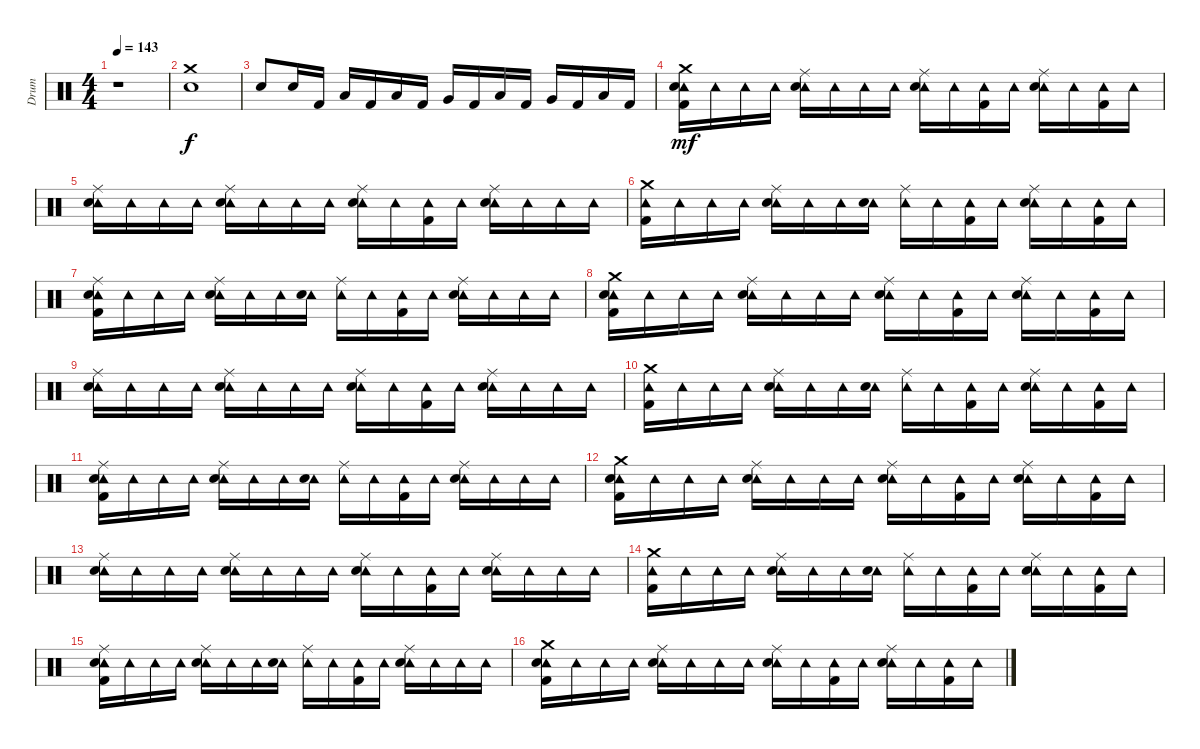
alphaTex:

\track ("Drum" "Drum") {instrument percussion}
\staff {score}
\articulation defaults
\ts (4 4)
\tempo 143
\clef neutral
\ks c
r.1{dy f} |
("Crash medium (hit)" "Snare (hit) 2").1 |
"Snare (hit) 2".8 "Snare (hit) 2".16 "Kick (hit) 2".16 "Low Floor Tom (hit)".16 "Kick (hit) 2".16 "Low Floor Tom (hit)".16 "Kick (hit) 2".16 "Very Low Tom (hit)".16 "Kick (hit) 2".16 "Low Floor Tom (hit)".16 "Kick (hit) 2".16 "Very Low Tom (hit)".16 "Kick (hit) 2".16 "Low Floor Tom (hit)".16 "Kick (hit) 2".16 |
("Tambourine (hit)" "Crash medium (hit)" "Snare (hit) 2" "Kick (hit) 2").16{dy mf} "Tambourine (hit)".16 "Tambourine (hit)".16 "Tambourine (hit)".16 ("Tambourine (hit)" "Ride (middle)" "Snare (hit) 2").16 "Tambourine (hit)".16 "Tambourine (hit)".16 "Tambourine (hit)".16 ("Tambourine (hit)" "Ride (middle)" "Snare (hit) 2").16 "Tambourine (hit)".16 ("Tambourine (hit)" "Kick (hit) 2").16 "Tambourine (hit)".16 ("Tambourine (hit)" "Ride (middle)" "Snare (hit) 2").16 "Tambourine (hit)".16 ("Tambourine (hit)" "Kick (hit) 2").16 "Tambourine (hit)".16 |
("Tambourine (hit)" "Ride (middle)" "Snare (hit) 2").16 "Tambourine (hit)".16 "Tambourine (hit)".16 "Tambourine (hit)".16 ("Tambourine (hit)" "Ride (middle)" "Snare (hit) 2").16 "Tambourine (hit)".16 "Tambourine (hit)".16 "Tambourine (hit)".16 ("Tambourine (hit)" "Ride (middle)" "Snare (hit) 2").16 "Tambourine (hit)".16 ("Tambourine (hit)" "Kick (hit) 2").16 "Tambourine (hit)".16 ("Tambourine (hit)" "Ride (middle)" "Snare (hit) 2").16 "Tambourine (hit)".16 "Tambourine (hit)".16 "Tambourine (hit)".16 |
("Tambourine (hit)" "Crash medium (hit)" "Kick (hit) 2").16 "Tambourine (hit)".16 "Tambourine (hit)".16 "Tambourine (hit)".16 ("Tambourine (hit)" "Ride (middle)" "Snare (hit) 2").16 "Tambourine (hit)".16 "Tambourine (hit)".16 ("Tambourine (hit)" "Snare (hit) 2").16 ("Tambourine (hit)" "Ride (middle)").16 "Tambourine (hit)".16 ("Tambourine (hit)" "Kick (hit) 2").16 "Tambourine (hit)".16 ("Tambourine (hit)" "Ride (middle)" "Snare (hit) 2").16 "Tambourine (hit)".16 ("Tambourine (hit)" "Kick (hit) 2").16 "Tambourine (hit)".16 |
("Tambourine (hit)" "Ride (middle)" "Snare (hit) 2" "Kick (hit) 2").16 "Tambourine (hit)".16 "Tambourine (hit)".16 "Tambourine (hit)".16 ("Tambourine (hit)" "Ride (middle)" "Snare (hit) 2").16 "Tambourine (hit)".16 "Tambourine (hit)".16 ("Tambourine (hit)" "Snare (hit) 2").16 ("Tambourine (hit)" "Ride (middle)").16 "Tambourine (hit)".16 ("Tambourine (hit)" "Kick (hit) 2").16 "Tambourine (hit)".16 ("Tambourine (hit)" "Ride (middle)" "Snare (hit) 2").16 "Tambourine (hit)".16 "Tambourine (hit)".16 "Tambourine (hit)".16 |
("Tambourine (hit)" "Crash medium (hit)" "Snare (hit) 2" "Kick (hit) 2").16 "Tambourine (hit)".16 "Tambourine (hit)".16 "Tambourine (hit)".16 ("Tambourine (hit)" "Ride (middle)" "Snare (hit) 2").16 "Tambourine (hit)".16 "Tambourine (hit)".16 "Tambourine (hit)".16 ("Tambourine (hit)" "Ride (middle)" "Snare (hit) 2").16 "Tambourine (hit)".16 ("Tambourine (hit)" "Kick (hit) 2").16 "Tambourine (hit)".16 ("Tambourine (hit)" "Ride (middle)" "Snare (hit) 2").16 "Tambourine (hit)".16 ("Tambourine (hit)" "Kick (hit) 2").16 "Tambourine (hit)".16 |
("Tambourine (hit)" "Ride (middle)" "Snare (hit) 2").16 "Tambourine (hit)".16 "Tambourine (hit)".16 "Tambourine (hit)".16 ("Tambourine (hit)" "Ride (middle)" "Snare (hit) 2").16 "Tambourine (hit)".16 "Tambourine (hit)".16 "Tambourine (hit)".16 ("Tambourine (hit)" "Ride (middle)" "Snare (hit) 2").16 "Tambourine (hit)".16 ("Tambourine (hit)" "Kick (hit) 2").16 "Tambourine (hit)".16 ("Tambourine (hit)" "Ride (middle)" "Snare (hit) 2").16 "Tambourine (hit)".16 "Tambourine (hit)".16 "Tambourine (hit)".16 |
("Tambourine (hit)" "Crash medium (hit)" "Kick (hit) 2").16 "Tambourine (hit)".16 "Tambourine (hit)".16 "Tambourine (hit)".16 ("Tambourine (hit)" "Ride (middle)" "Snare (hit) 2").16 "Tambourine (hit)".16 "Tambourine (hit)".16 ("Tambourine (hit)" "Snare (hit) 2").16 ("Tambourine (hit)" "Ride (middle)").16 "Tambourine (hit)".16 ("Tambourine (hit)" "Kick (hit) 2").16 "Tambourine (hit)".16 ("Tambourine (hit)" "Ride (middle)" "Snare (hit) 2").16 "Tambourine (hit)".16 ("Tambourine (hit)" "Kick (hit) 2").16 "Tambourine (hit)".16 |
("Tambourine (hit)" "Ride (middle)" "Snare (hit) 2" "Kick (hit) 2").16 "Tambourine (hit)".16 "Tambourine (hit)".16 "Tambourine (hit)".16 ("Tambourine (hit)" "Ride (middle)" "Snare (hit) 2").16 "Tambourine (hit)".16 "Tambourine (hit)".16 ("Tambourine (hit)" "Snare (hit) 2").16 ("Tambourine (hit)" "Ride (middle)").16 "Tambourine (hit)".16 ("Tambourine (hit)" "Kick (hit) 2").16 "Tambourine (hit)".16 ("Tambourine (hit)" "Ride (middle)" "Snare (hit) 2").16 "Tambourine (hit)".16 "Tambourine (hit)".16 "Tambourine (hit)".16 |
("Tambourine (hit)" "Crash medium (hit)" "Snare (hit) 2" "Kick (hit) 2").16 "Tambourine (hit)".16 "Tambourine (hit)".16 "Tambourine (hit)".16 ("Tambourine (hit)" "Ride (middle)" "Snare (hit) 2").16 "Tambourine (hit)".16 "Tambourine (hit)".16 "Tambourine (hit)".16 ("Tambourine (hit)" "Ride (middle)" "Snare (hit) 2").16 "Tambourine (hit)".16 ("Tambourine (hit)" "Kick (hit) 2").16 "Tambourine (hit)".16 ("Tambourine (hit)" "Ride (middle)" "Snare (hit) 2").16 "Tambourine (hit)".16 ("Tambourine (hit)" "Kick (hit) 2").16 "Tambourine (hit)".16 |
("Tambourine (hit)" "Ride (middle)" "Snare (hit) 2").16 "Tambourine (hit)".16 "Tambourine (hit)".16 "Tambourine (hit)".16 ("Tambourine (hit)" "Ride (middle)" "Snare (hit) 2").16 "Tambourine (hit)".16 "Tambourine (hit)".16 "Tambourine (hit)".16 ("Tambourine (hit)" "Ride (middle)" "Snare (hit) 2").16 "Tambourine (hit)".16 ("Tambourine (hit)" "Kick (hit) 2").16 "Tambourine (hit)".16 ("Tambourine (hit)" "Ride (middle)" "Snare (hit) 2").16 "Tambourine (hit)".16 "Tambourine (hit)".16 "Tambourine (hit)".16 |
("Tambourine (hit)" "Crash medium (hit)" "Kick (hit) 2").16 "Tambourine (hit)".16 "Tambourine (hit)".16 "Tambourine (hit)".16 ("Tambourine (hit)" "Ride (middle)" "Snare (hit) 2").16 "Tambourine (hit)".16 "Tambourine (hit)".16 ("Tambourine (hit)" "Snare (hit) 2").16 ("Tambourine (hit)" "Ride (middle)").16 "Tambourine (hit)".16 ("Tambourine (hit)" "Kick (hit) 2").16 "Tambourine (hit)".16 ("Tambourine (hit)" "Ride (middle)" "Snare (hit) 2").16 "Tambourine (hit)".16 ("Tambourine (hit)" "Kick (hit) 2").16 "Tambourine (hit)".16 |
("Tambourine (hit)" "Ride (middle)" "Snare (hit) 2" "Kick (hit) 2").16 "Tambourine (hit)".16 "Tambourine (hit)".16 "Tambourine (hit)".16 ("Tambourine (hit)" "Ride (middle)" "Snare (hit) 2").16 "Tambourine (hit)".16 "Tambourine (hit)".16 ("Tambourine (hit)" "Snare (hit) 2").16 ("Tambourine (hit)" "Ride (middle)").16 "Tambourine (hit)".16 ("Tambourine (hit)" "Kick (hit) 2").16 "Tambourine (hit)".16 ("Tambourine (hit)" "Ride (middle)" "Snare (hit) 2").16 "Tambourine (hit)".16 "Tambourine (hit)".16 "Tambourine (hit)".16 |
("Tambourine (hit)" "Crash medium (hit)" "Snare (hit) 2" "Kick (hit) 2").16 "Tambourine (hit)".16 "Tambourine (hit)".16 "Tambourine (hit)".16 ("Tambourine (hit)" "Ride (middle)" "Snare (hit) 2").16 "Tambourine (hit)".16 "Tambourine (hit)".16 "Tambourine (hit)".16 ("Tambourine (hit)" "Ride (middle)" "Snare (hit) 2").16 "Tambourine (hit)".16 ("Tambourine (hit)" "Kick (hit) 2").16 "Tambourine (hit)".16 ("Tambourine (hit)" "Ride (middle)" "Snare (hit) 2").16 "Tambourine (hit)".16 ("Tambourine (hit)" "Kick (hit) 2").16 "Tambourine (hit)".16
